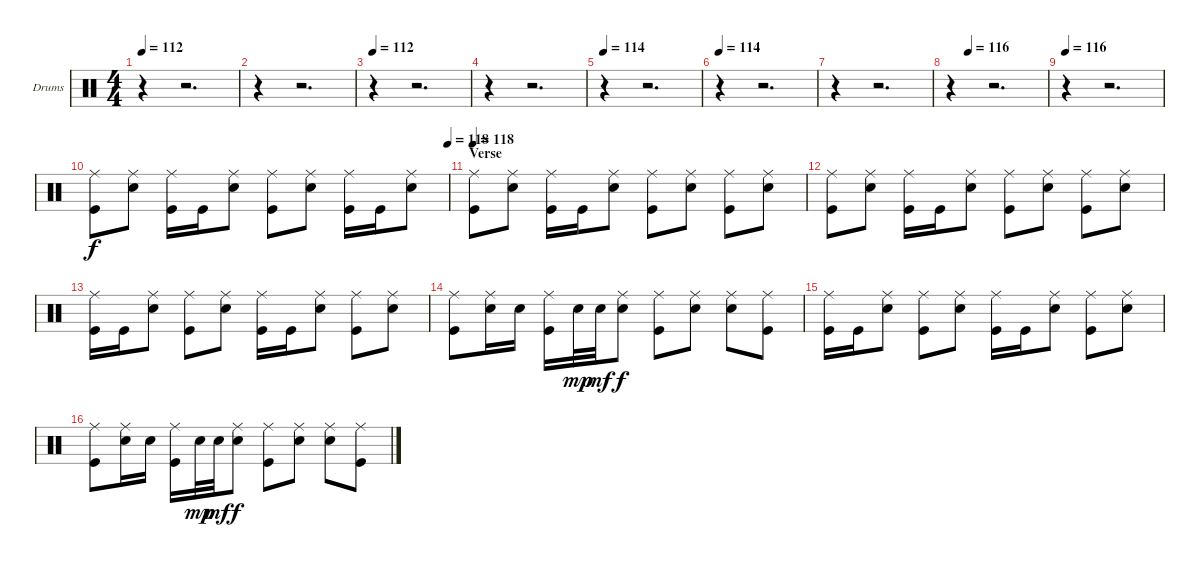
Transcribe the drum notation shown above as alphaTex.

\bracketExtendMode groupsimilarinstruments
\firstSystemTrackNameOrientation horizontal
\otherSystemsTrackNameOrientation horizontal
\track ("Drumkit" "Drums") {instrument percussion}
\staff {score}
\articulation defaults
\ts (4 4)
\tempo 112
\clef neutral
\ks c
r.4{dy f} r.2{d} |
r.4 r.2{d} |
\tempo 112
r.4 r.2{d} |
r.4 r.2{d} |
\tempo 114
r.4 r.2{d} |
\tempo 114
r.4 r.2{d} |
r.4 r.2{d} |
\tempo (116 0.1875)
r.4 r.2{d} |
\tempo 116
r.4 r.2{d} |
\tempo (118 1)
("Ride (middle)" "Kick (hit)").8 ("Ride (middle)" "Snare (hit) 2").8 ("Ride (middle)" "Kick (hit)").16 "Kick (hit)".16 ("Ride (middle)" "Snare (hit) 2").8 ("Ride (middle)" "Kick (hit)").8 ("Ride (middle)" "Snare (hit) 2").8 ("Ride (middle)" "Kick (hit)").16 "Kick (hit)".16 ("Ride (middle)" "Snare (hit) 2").8 |
\section ("" "Verse")
\tempo 118
("Ride (middle)" "Kick (hit)").8 ("Ride (middle)" "Snare (hit) 2").8 ("Ride (middle)" "Kick (hit)").16 "Kick (hit)".16 ("Ride (middle)" "Snare (hit) 2").8 ("Ride (middle)" "Kick (hit)").8 ("Ride (middle)" "Snare (hit) 2").8 ("Ride (middle)" "Kick (hit)").8 ("Ride (middle)" "Snare (hit) 2").8 |
("Ride (middle)" "Kick (hit)").8 ("Ride (middle)" "Snare (hit) 2").8 ("Ride (middle)" "Kick (hit)").16 "Kick (hit)".16 ("Ride (middle)" "Snare (hit) 2").8 ("Ride (middle)" "Kick (hit)").8 ("Ride (middle)" "Snare (hit) 2").8 ("Ride (middle)" "Kick (hit)").8 ("Ride (middle)" "Snare (hit) 2").8 |
("Ride (middle)" "Kick (hit)").16 "Kick (hit)".16 ("Ride (middle)" "Snare (hit) 2").8 ("Ride (middle)" "Kick (hit)").8 ("Ride (middle)" "Snare (hit) 2").8 ("Ride (middle)" "Kick (hit)").16 "Kick (hit)".16 ("Ride (middle)" "Snare (hit) 2").8 ("Ride (middle)" "Kick (hit)").8 ("Ride (middle)" "Snare (hit) 2").8 |
("Ride (middle)" "Kick (hit)").8 ("Ride (middle)" "Snare (hit) 2").16 "Snare (hit) 2".16 ("Ride (middle)" "Kick (hit)").16 "Snare (hit) 2".32{dy mp} "Snare (hit) 2".32{dy mf} ("Ride (middle)" "Snare (hit) 2").8{dy f} ("Ride (middle)" "Kick (hit)").8 ("Ride (middle)" "Snare (hit) 2").8 ("Ride (middle)" "Snare (hit) 2").8 ("Ride (middle)" "Kick (hit)").8 |
("Ride (middle)" "Kick (hit)").16 "Kick (hit)".16 ("Ride (middle)" "Snare (hit) 2").8 ("Ride (middle)" "Kick (hit)").8 ("Ride (middle)" "Snare (hit) 2").8 ("Ride (middle)" "Kick (hit)").16 "Kick (hit)".16 ("Ride (middle)" "Snare (hit) 2").8 ("Ride (middle)" "Kick (hit)").8 ("Ride (middle)" "Snare (hit) 2").8 |
("Ride (middle)" "Kick (hit)").8 ("Ride (middle)" "Snare (hit) 2").16 "Snare (hit) 2".16 ("Ride (middle)" "Kick (hit)").16 "Snare (hit) 2".32{dy mp} "Snare (hit) 2".32{dy mf} ("Ride (middle)" "Snare (hit) 2").8{dy f} ("Ride (middle)" "Kick (hit)").8 ("Ride (middle)" "Snare (hit) 2").8 ("Ride (middle)" "Snare (hit) 2").8 ("Ride (middle)" "Kick (hit)").8
